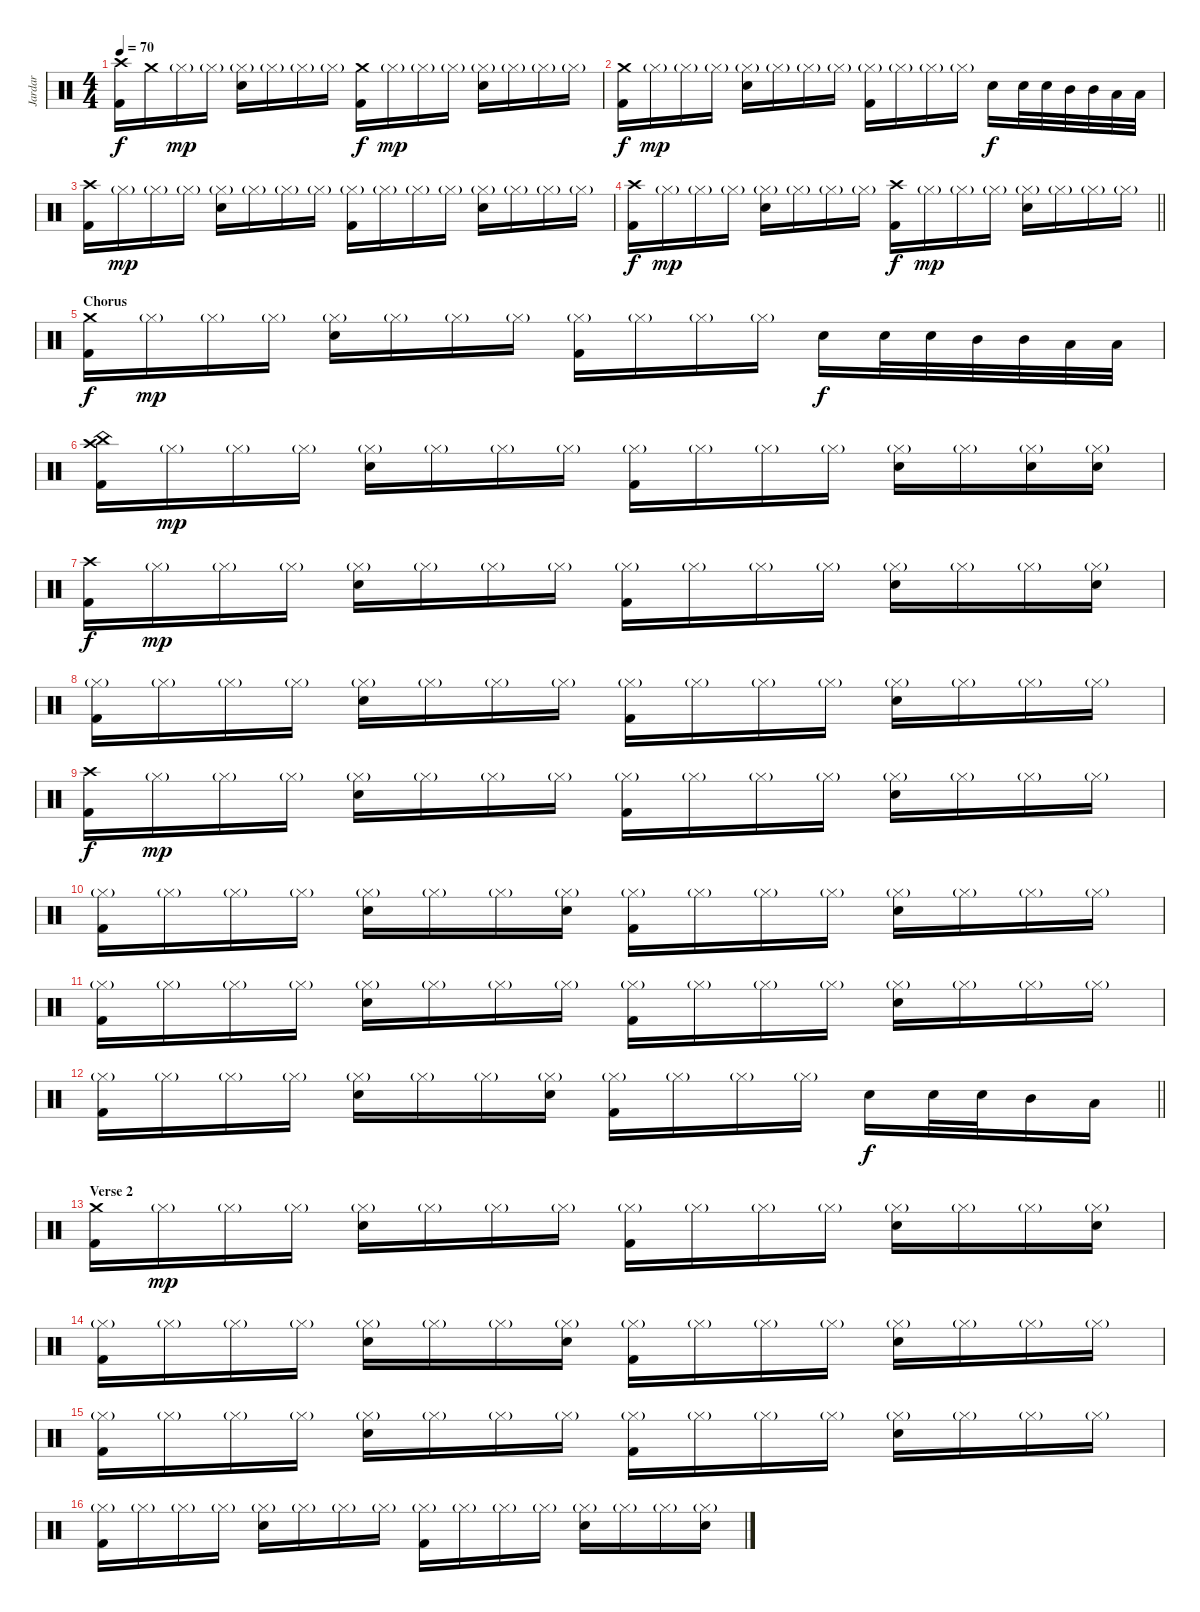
\track ("Jardar" "Jardar") {instrument percussion}
\staff {score}
\articulation defaults
\ts (4 4)
\tempo 70
\clef neutral
\ks c
("Crash high (hit)" "Kick (hit) 2").16{dy f} "Crash medium (hit)".16 "Hi-Hat (closed)"{g}.16{dy mp} "Hi-Hat (closed)"{g}.16 ("Hi-Hat (closed)"{g} "Electric Snare (hit)").16 "Hi-Hat (closed)"{g}.16 "Hi-Hat (closed)"{g}.16 "Hi-Hat (closed)"{g}.16 ("Crash medium (hit)" "Kick (hit) 2").16{dy f} "Hi-Hat (closed)"{g}.16{dy mp} "Hi-Hat (closed)"{g}.16 "Hi-Hat (closed)"{g}.16 ("Hi-Hat (closed)"{g} "Electric Snare (hit)").16 "Hi-Hat (closed)"{g}.16 "Hi-Hat (closed)"{g}.16 "Hi-Hat (closed)"{g}.16 |
("Crash medium (hit)" "Kick (hit) 2").16{dy f} "Hi-Hat (closed)"{g}.16{dy mp} "Hi-Hat (closed)"{g}.16 "Hi-Hat (closed)"{g}.16 ("Hi-Hat (closed)"{g} "Electric Snare (hit)").16 "Hi-Hat (closed)"{g}.16 "Hi-Hat (closed)"{g}.16 "Hi-Hat (closed)"{g}.16 ("Hi-Hat (closed)"{g} "Kick (hit) 2").16 "Hi-Hat (closed)"{g}.16 "Hi-Hat (closed)"{g}.16 "Hi-Hat (closed)"{g}.16 "Electric Snare (hit)".16{dy f} "Electric Snare (hit)".32 "Electric Snare (hit)".32 "Mid Tom (hit)".32 "Mid Tom (hit)".32 "Low Tom (hit)".32 "Low Tom (hit)".32 |
("Crash high (hit)" "Kick (hit) 2").16 "Hi-Hat (closed)"{g}.16{dy mp} "Hi-Hat (closed)"{g}.16 "Hi-Hat (closed)"{g}.16 ("Hi-Hat (closed)"{g} "Electric Snare (hit)").16 "Hi-Hat (closed)"{g}.16 "Hi-Hat (closed)"{g}.16 "Hi-Hat (closed)"{g}.16 ("Hi-Hat (closed)"{g} "Kick (hit) 2").16 "Hi-Hat (closed)"{g}.16 "Hi-Hat (closed)"{g}.16 "Hi-Hat (closed)"{g}.16 ("Hi-Hat (closed)"{g} "Electric Snare (hit)").16 "Hi-Hat (closed)"{g}.16 "Hi-Hat (closed)"{g}.16 "Hi-Hat (closed)"{g}.16 |
\barLineRight lightlight
("Crash high (hit)" "Kick (hit) 2").16{dy f} "Hi-Hat (closed)"{g}.16{dy mp} "Hi-Hat (closed)"{g}.16 "Hi-Hat (closed)"{g}.16 ("Hi-Hat (closed)"{g} "Electric Snare (hit)").16 "Hi-Hat (closed)"{g}.16 "Hi-Hat (closed)"{g}.16 "Hi-Hat (closed)"{g}.16 ("Crash high (hit)" "Kick (hit) 2").16{dy f} "Hi-Hat (closed)"{g}.16{dy mp} "Hi-Hat (closed)"{g}.16 "Hi-Hat (closed)"{g}.16 ("Hi-Hat (closed)"{g} "Electric Snare (hit)").16 "Hi-Hat (closed)"{g}.16 "Hi-Hat (closed)"{g}.16 "Hi-Hat (closed)"{g}.16 |
\section ("" "Chorus")
("Crash medium (hit)" "Kick (hit) 2").16{dy f} "Hi-Hat (closed)"{g}.16{dy mp} "Hi-Hat (closed)"{g}.16 "Hi-Hat (closed)"{g}.16 ("Hi-Hat (closed)"{g} "Electric Snare (hit)").16 "Hi-Hat (closed)"{g}.16 "Hi-Hat (closed)"{g}.16 "Hi-Hat (closed)"{g}.16 ("Hi-Hat (closed)"{g} "Kick (hit) 2").16 "Hi-Hat (closed)"{g}.16 "Hi-Hat (closed)"{g}.16 "Hi-Hat (closed)"{g}.16 "Electric Snare (hit)".16{dy f} "Electric Snare (hit)".32 "Electric Snare (hit)".32 "Mid Tom (hit)".32 "Mid Tom (hit)".32 "Low Tom (hit)".32 "Low Tom (hit)".32 |
("Crash high (hit)" "China (hit)" "Kick (hit) 2").16 "Hi-Hat (closed)"{g}.16{dy mp} "Hi-Hat (closed)"{g}.16 "Hi-Hat (closed)"{g}.16 ("Hi-Hat (closed)"{g} "Electric Snare (hit)").16 "Hi-Hat (closed)"{g}.16 "Hi-Hat (closed)"{g}.16 "Hi-Hat (closed)"{g}.16 ("Hi-Hat (closed)"{g} "Kick (hit) 2").16 "Hi-Hat (closed)"{g}.16 "Hi-Hat (closed)"{g}.16 "Hi-Hat (closed)"{g}.16 ("Hi-Hat (closed)"{g} "Electric Snare (hit)").16 "Hi-Hat (closed)"{g}.16 ("Hi-Hat (closed)"{g} "Electric Snare (hit)").16 ("Hi-Hat (closed)"{g} "Electric Snare (hit)").16 |
("Crash high (hit)" "Kick (hit) 2").16{dy f} "Hi-Hat (closed)"{g}.16{dy mp} "Hi-Hat (closed)"{g}.16 "Hi-Hat (closed)"{g}.16 ("Hi-Hat (closed)"{g} "Electric Snare (hit)").16 "Hi-Hat (closed)"{g}.16 "Hi-Hat (closed)"{g}.16 "Hi-Hat (closed)"{g}.16 ("Hi-Hat (closed)"{g} "Kick (hit) 2").16 "Hi-Hat (closed)"{g}.16 "Hi-Hat (closed)"{g}.16 "Hi-Hat (closed)"{g}.16 ("Hi-Hat (closed)"{g} "Electric Snare (hit)").16 "Hi-Hat (closed)"{g}.16 "Hi-Hat (closed)"{g}.16 ("Hi-Hat (closed)"{g} "Electric Snare (hit)").16 |
("Hi-Hat (closed)"{g} "Kick (hit) 2").16 "Hi-Hat (closed)"{g}.16 "Hi-Hat (closed)"{g}.16 "Hi-Hat (closed)"{g}.16 ("Hi-Hat (closed)"{g} "Electric Snare (hit)").16 "Hi-Hat (closed)"{g}.16 "Hi-Hat (closed)"{g}.16 "Hi-Hat (closed)"{g}.16 ("Hi-Hat (closed)"{g} "Kick (hit) 2").16 "Hi-Hat (closed)"{g}.16 "Hi-Hat (closed)"{g}.16 "Hi-Hat (closed)"{g}.16 ("Hi-Hat (closed)"{g} "Electric Snare (hit)").16 "Hi-Hat (closed)"{g}.16 "Hi-Hat (closed)"{g}.16 "Hi-Hat (closed)"{g}.16 |
("Crash high (hit)" "Kick (hit) 2").16{dy f} "Hi-Hat (closed)"{g}.16{dy mp} "Hi-Hat (closed)"{g}.16 "Hi-Hat (closed)"{g}.16 ("Hi-Hat (closed)"{g} "Electric Snare (hit)").16 "Hi-Hat (closed)"{g}.16 "Hi-Hat (closed)"{g}.16 "Hi-Hat (closed)"{g}.16 ("Hi-Hat (closed)"{g} "Kick (hit) 2").16 "Hi-Hat (closed)"{g}.16 "Hi-Hat (closed)"{g}.16 "Hi-Hat (closed)"{g}.16 ("Hi-Hat (closed)"{g} "Electric Snare (hit)").16 "Hi-Hat (closed)"{g}.16 "Hi-Hat (closed)"{g}.16 "Hi-Hat (closed)"{g}.16 |
("Hi-Hat (closed)"{g} "Kick (hit) 2").16 "Hi-Hat (closed)"{g}.16 "Hi-Hat (closed)"{g}.16 "Hi-Hat (closed)"{g}.16 ("Hi-Hat (closed)"{g} "Electric Snare (hit)").16 "Hi-Hat (closed)"{g}.16 "Hi-Hat (closed)"{g}.16 ("Hi-Hat (closed)"{g} "Electric Snare (hit)").16 ("Hi-Hat (closed)"{g} "Kick (hit) 2").16 "Hi-Hat (closed)"{g}.16 "Hi-Hat (closed)"{g}.16 "Hi-Hat (closed)"{g}.16 ("Hi-Hat (closed)"{g} "Electric Snare (hit)").16 "Hi-Hat (closed)"{g}.16 "Hi-Hat (closed)"{g}.16 "Hi-Hat (closed)"{g}.16 |
("Hi-Hat (closed)"{g} "Kick (hit) 2").16 "Hi-Hat (closed)"{g}.16 "Hi-Hat (closed)"{g}.16 "Hi-Hat (closed)"{g}.16 ("Hi-Hat (closed)"{g} "Electric Snare (hit)").16 "Hi-Hat (closed)"{g}.16 "Hi-Hat (closed)"{g}.16 "Hi-Hat (closed)"{g}.16 ("Hi-Hat (closed)"{g} "Kick (hit) 2").16 "Hi-Hat (closed)"{g}.16 "Hi-Hat (closed)"{g}.16 "Hi-Hat (closed)"{g}.16 ("Hi-Hat (closed)"{g} "Electric Snare (hit)").16 "Hi-Hat (closed)"{g}.16 "Hi-Hat (closed)"{g}.16 "Hi-Hat (closed)"{g}.16 |
\barLineRight lightlight
("Hi-Hat (closed)"{g} "Kick (hit) 2").16 "Hi-Hat (closed)"{g}.16 "Hi-Hat (closed)"{g}.16 "Hi-Hat (closed)"{g}.16 ("Hi-Hat (closed)"{g} "Electric Snare (hit)").16 "Hi-Hat (closed)"{g}.16 "Hi-Hat (closed)"{g}.16 ("Hi-Hat (closed)"{g} "Electric Snare (hit)").16 ("Hi-Hat (closed)"{g} "Kick (hit) 2").16 "Hi-Hat (closed)"{g}.16 "Hi-Hat (closed)"{g}.16 "Hi-Hat (closed)"{g}.16 "Electric Snare (hit)".16{dy f} "Electric Snare (hit)".32 "Electric Snare (hit)".32 "Mid Tom (hit)".16 "Low Tom (hit)".16 |
\section ("" "Verse 2")
("Crash medium (hit)" "Kick (hit) 2").16 "Hi-Hat (closed)"{g}.16{dy mp} "Hi-Hat (closed)"{g}.16 "Hi-Hat (closed)"{g}.16 ("Hi-Hat (closed)"{g} "Electric Snare (hit)").16 "Hi-Hat (closed)"{g}.16 "Hi-Hat (closed)"{g}.16 "Hi-Hat (closed)"{g}.16 ("Hi-Hat (closed)"{g} "Kick (hit) 2").16 "Hi-Hat (closed)"{g}.16 "Hi-Hat (closed)"{g}.16 "Hi-Hat (closed)"{g}.16 ("Hi-Hat (closed)"{g} "Electric Snare (hit)").16 "Hi-Hat (closed)"{g}.16 "Hi-Hat (closed)"{g}.16 ("Hi-Hat (closed)"{g} "Electric Snare (hit)").16 |
("Hi-Hat (closed)"{g} "Kick (hit) 2").16 "Hi-Hat (closed)"{g}.16 "Hi-Hat (closed)"{g}.16 "Hi-Hat (closed)"{g}.16 ("Hi-Hat (closed)"{g} "Electric Snare (hit)").16 "Hi-Hat (closed)"{g}.16 "Hi-Hat (closed)"{g}.16 ("Hi-Hat (closed)"{g} "Electric Snare (hit)").16 ("Hi-Hat (closed)"{g} "Kick (hit) 2").16 "Hi-Hat (closed)"{g}.16 "Hi-Hat (closed)"{g}.16 "Hi-Hat (closed)"{g}.16 ("Hi-Hat (closed)"{g} "Electric Snare (hit)").16 "Hi-Hat (closed)"{g}.16 "Hi-Hat (closed)"{g}.16 "Hi-Hat (closed)"{g}.16 |
("Hi-Hat (closed)"{g} "Kick (hit) 2").16 "Hi-Hat (closed)"{g}.16 "Hi-Hat (closed)"{g}.16 "Hi-Hat (closed)"{g}.16 ("Hi-Hat (closed)"{g} "Electric Snare (hit)").16 "Hi-Hat (closed)"{g}.16 "Hi-Hat (closed)"{g}.16 "Hi-Hat (closed)"{g}.16 ("Hi-Hat (closed)"{g} "Kick (hit) 2").16 "Hi-Hat (closed)"{g}.16 "Hi-Hat (closed)"{g}.16 "Hi-Hat (closed)"{g}.16 ("Hi-Hat (closed)"{g} "Electric Snare (hit)").16 "Hi-Hat (closed)"{g}.16 "Hi-Hat (closed)"{g}.16 "Hi-Hat (closed)"{g}.16 |
("Hi-Hat (closed)"{g} "Kick (hit) 2").16 "Hi-Hat (closed)"{g}.16 "Hi-Hat (closed)"{g}.16 "Hi-Hat (closed)"{g}.16 ("Hi-Hat (closed)"{g} "Electric Snare (hit)").16 "Hi-Hat (closed)"{g}.16 "Hi-Hat (closed)"{g}.16 "Hi-Hat (closed)"{g}.16 ("Hi-Hat (closed)"{g} "Kick (hit) 2").16 "Hi-Hat (closed)"{g}.16 "Hi-Hat (closed)"{g}.16 "Hi-Hat (closed)"{g}.16 ("Hi-Hat (closed)"{g} "Electric Snare (hit)").16 "Hi-Hat (closed)"{g}.16 "Hi-Hat (closed)"{g}.16 ("Hi-Hat (closed)"{g} "Electric Snare (hit)").16
